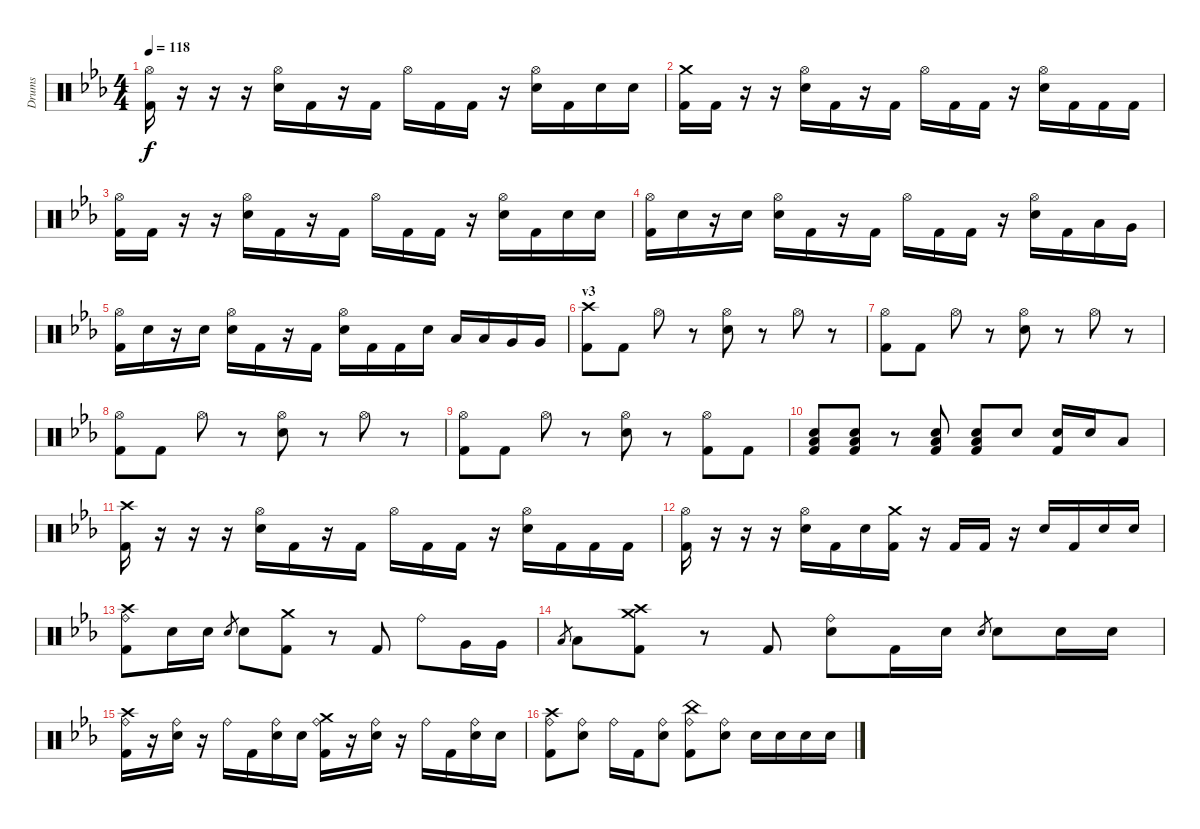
\track ("Drums" "Drums") {instrument percussion}
\staff {score}
\articulation defaults
\ts (4 4)
\tempo 118
\clef neutral
\ks cminor
("Kick (hit) 2" "Hi-Hat (open)").16{dy f} r.16 r.16 r.16 ("Hi-Hat (open)" "Electric Snare (hit)").16 "Kick (hit) 2".16 r.16 "Kick (hit) 2".16 "Hi-Hat (open)".16 "Kick (hit) 2".16 "Kick (hit) 2".16 r.16 ("Hi-Hat (open)" "Electric Snare (hit)").16 "Kick (hit) 2".16 "Electric Snare (hit)".16 "Electric Snare (hit)".16 |
("Kick (hit) 2" "Crash medium (hit)").16 "Kick (hit) 2".16 r.16 r.16 ("Hi-Hat (open)" "Electric Snare (hit)").16 "Kick (hit) 2".16 r.16 "Kick (hit) 2".16 "Hi-Hat (open)".16 "Kick (hit) 2".16 "Kick (hit) 2".16 r.16 ("Hi-Hat (open)" "Electric Snare (hit)").16 "Kick (hit) 2".16 "Kick (hit) 2".16 "Kick (hit) 2".16 |
("Kick (hit) 2" "Hi-Hat (open)").16 "Kick (hit) 2".16 r.16 r.16 ("Hi-Hat (open)" "Electric Snare (hit)").16 "Kick (hit) 2".16 r.16 "Kick (hit) 2".16 "Hi-Hat (open)".16 "Kick (hit) 2".16 "Kick (hit) 2".16 r.16 ("Hi-Hat (open)" "Electric Snare (hit)").16 "Kick (hit) 2".16 "Electric Snare (hit)".16 "Electric Snare (hit)".16 |
("Kick (hit) 2" "Hi-Hat (open)").16 "Electric Snare (hit)".16 r.16 "Electric Snare (hit)".16 ("Hi-Hat (open)" "Electric Snare (hit)").16 "Kick (hit) 2".16 r.16 "Kick (hit) 2".16 "Hi-Hat (open)".16 "Kick (hit) 2".16 "Kick (hit) 2".16 r.16 ("Hi-Hat (open)" "Electric Snare (hit)").16 "Kick (hit) 2".16 "Low Tom (hit)".16 "Very Low Tom (hit)".16 |
("Kick (hit) 2" "Hi-Hat (open)").16 "Electric Snare (hit)".16 r.16 "Electric Snare (hit)".16 ("Hi-Hat (open)" "Electric Snare (hit)").16 "Kick (hit) 2".16 r.16 "Kick (hit) 2".16 ("Hi-Hat (open)" "Electric Snare (hit)").16 "Kick (hit) 2".16 "Kick (hit) 2".16 "Electric Snare (hit)".16 "Low Tom (hit)".16 "Low Tom (hit)".16 "Very Low Tom (hit)".16 "Very Low Tom (hit)".16 |
\section ("" "v3")
("Kick (hit) 2" "Crash high (hit)").8 "Kick (hit) 2".8 "Hi-Hat (open)".8 r.8 ("Hi-Hat (open)" "Electric Snare (hit)").8 r.8 "Hi-Hat (open)".8 r.8 |
("Kick (hit) 2" "Hi-Hat (open)").8 "Kick (hit) 2".8 "Hi-Hat (open)".8 r.8 ("Hi-Hat (open)" "Electric Snare (hit)").8 r.8 "Hi-Hat (open)".8 r.8 |
("Kick (hit) 2" "Hi-Hat (open)").8 "Kick (hit) 2".8 "Hi-Hat (open)".8 r.8 ("Hi-Hat (open)" "Electric Snare (hit)").8 r.8 "Hi-Hat (open)".8 r.8 |
("Kick (hit) 2" "Hi-Hat (open)").8 "Kick (hit) 2".8 "Hi-Hat (open)".8 r.8 ("Hi-Hat (open)" "Electric Snare (hit)").8 r.8 ("Kick (hit) 2" "Hi-Hat (open)").8 "Kick (hit) 2".8 |
("Kick (hit) 2" "Low Floor Tom (hit)" "Electric Snare (hit)").8 ("Kick (hit) 2" "Low Floor Tom (hit)" "Electric Snare (hit)").8 r.8 ("Kick (hit) 2" "Low Floor Tom (hit)" "Electric Snare (hit)").8 ("Kick (hit) 2" "Low Floor Tom (hit)" "Electric Snare (hit)").8 "Electric Snare (hit)".8 ("Kick (hit) 2" "Electric Snare (hit)").16 "Electric Snare (hit)".16 "Low Tom (hit)".8 |
("Kick (hit) 2" "Crash high (hit)").16 r.16 r.16 r.16 ("Hi-Hat (open)" "Electric Snare (hit)").16 "Kick (hit) 2".16 r.16 "Kick (hit) 2".16 "Hi-Hat (open)".16 "Kick (hit) 2".16 "Kick (hit) 2".16 r.16 ("Hi-Hat (open)" "Electric Snare (hit)").16 "Kick (hit) 2".16 "Kick (hit) 2".16 "Kick (hit) 2".16 |
("Kick (hit) 2" "Hi-Hat (open)").16 r.16 r.16 r.16 ("Hi-Hat (open)" "Electric Snare (hit)").16 "Kick (hit) 2".16 "Electric Snare (hit)".16 ("Kick (hit) 2" "Crash medium (hit)").16 r.16 "Kick (hit) 2".16 "Kick (hit) 2".16 r.16 "Electric Snare (hit)".16 "Kick (hit) 2".16 "Electric Snare (hit)".16 "Electric Snare (hit)".16 |
("Kick (hit) 2" "Ride (bell)" "Crash high (hit)").8 "Electric Snare (hit)".16 "Electric Snare (hit)".16 "Electric Snare (hit)".8{gr} "Electric Snare (hit)".8 ("Kick (hit) 2" "Crash medium (hit)").8 r.8 "Kick (hit) 2".8 "Ride (bell)".8 "Very Low Tom (hit)".16 "Very Low Tom (hit)".16 |
"Low Floor Tom (hit)".8{gr} "Low Floor Tom (hit)".8 ("Kick (hit) 2" "Crash medium (hit)" "Crash high (hit)").8 r.8 "Kick (hit) 2".8 ("Ride (bell)" "Electric Snare (hit)").8 "Kick (hit) 2".16 "Electric Snare (hit)".16 "Electric Snare (hit)".8{gr} "Electric Snare (hit)".8 "Electric Snare (hit)".16 "Electric Snare (hit)".16 |
("Kick (hit) 2" "Ride (bell)" "Crash high (hit)").16 r.16 ("Electric Snare (hit)" "Ride (bell)").16 r.16 "Ride (bell)".16 "Kick (hit) 2".16 ("Electric Snare (hit)" "Ride (bell)").16 "Electric Snare (hit)".16 ("Kick (hit) 2" "Ride (bell)" "Crash medium (hit)").16 r.16 ("Electric Snare (hit)" "Ride (bell)").16 r.16 "Ride (bell)".16 "Kick (hit) 2".16 ("Electric Snare (hit)" "Ride (bell)").16 "Electric Snare (hit)".16 |
("Kick (hit) 2" "Ride (bell)" "Crash high (hit)").8 ("Electric Snare (hit)" "Ride (bell)").8 "Ride (bell)".16 "Kick (hit) 2".16 ("Electric Snare (hit)" "Ride (bell)").8 ("Kick (hit) 2" "Ride (bell)" "China (hit)").8 ("Electric Snare (hit)" "Ride (bell)").8 "Electric Snare (hit)".16 "Electric Snare (hit)".16 "Electric Snare (hit)".16 "Electric Snare (hit)".16
